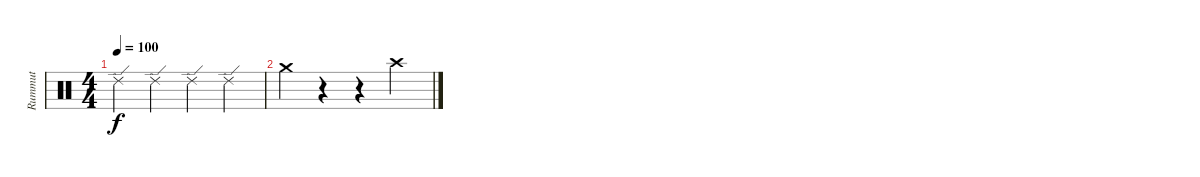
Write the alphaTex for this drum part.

\track ("Rummut" "Rummut") {instrument percussion}
\staff {score}
\articulation defaults
\ts (4 4)
\tempo 100
\clef neutral
\ks c "Ride (edge) 2".4{dy f} "Ride (edge) 2".4 "Ride (edge) 2".4 "Ride (edge) 2".4
|
"Crash medium (hit)".4 r.4 r.4 "Crash high (hit)".4
